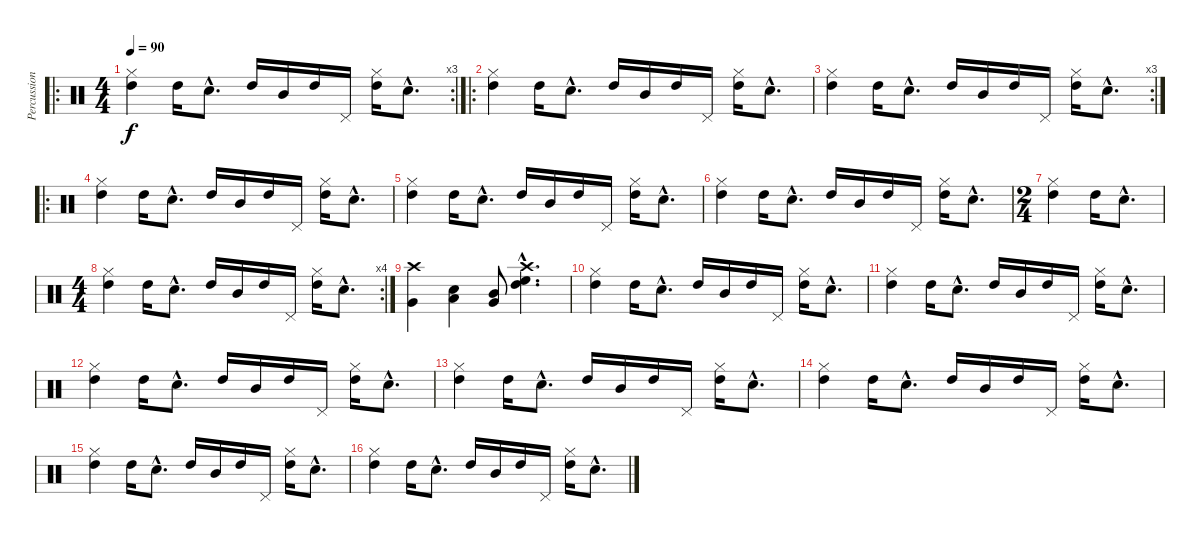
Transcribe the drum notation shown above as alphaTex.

\track ("Percussions(J.Porcaro)" "Percussion") {instrument percussion}
\staff {score}
\articulation defaults
\ro
\rc 3
\ts (4 4)
\tempo 90
\clef neutral
\ks c
("High Tom (hit)" "Hi-Hat (closed)").4{dy f} "High Tom (hit)".16 "Snare (hit) 2"{hac}.8{d} "High Tom (hit)".16 "Mid Tom (hit)".16 "High Tom (hit)".16 "Pedal Hi-Hat (hit)".16 ("High Tom (hit)" "Hi-Hat (closed)").16 "Snare (hit) 2"{hac}.8{d} |
\ro
("High Tom (hit)" "Hi-Hat (closed)").4 "High Tom (hit)".16 "Snare (hit) 2"{hac}.8{d} "High Tom (hit)".16 "Mid Tom (hit)".16 "High Tom (hit)".16 "Pedal Hi-Hat (hit)".16 ("High Tom (hit)" "Hi-Hat (closed)").16 "Snare (hit) 2"{hac}.8{d} |
\rc 3
("High Tom (hit)" "Hi-Hat (closed)").4 "High Tom (hit)".16 "Snare (hit) 2"{hac}.8{d} "High Tom (hit)".16 "Mid Tom (hit)".16 "High Tom (hit)".16 "Pedal Hi-Hat (hit)".16 ("High Tom (hit)" "Hi-Hat (closed)").16 "Snare (hit) 2"{hac}.8{d} |
\ro
("High Tom (hit)" "Hi-Hat (closed)").4 "High Tom (hit)".16 "Snare (hit) 2"{hac}.8{d} "High Tom (hit)".16 "Mid Tom (hit)".16 "High Tom (hit)".16 "Pedal Hi-Hat (hit)".16 ("High Tom (hit)" "Hi-Hat (closed)").16 "Snare (hit) 2"{hac}.8{d} |
("High Tom (hit)" "Hi-Hat (closed)").4 "High Tom (hit)".16 "Snare (hit) 2"{hac}.8{d} "High Tom (hit)".16 "Mid Tom (hit)".16 "High Tom (hit)".16 "Pedal Hi-Hat (hit)".16 ("High Tom (hit)" "Hi-Hat (closed)").16 "Snare (hit) 2"{hac}.8{d} |
("High Tom (hit)" "Hi-Hat (closed)").4 "High Tom (hit)".16 "Snare (hit) 2"{hac}.8{d} "High Tom (hit)".16 "Mid Tom (hit)".16 "High Tom (hit)".16 "Pedal Hi-Hat (hit)".16 ("High Tom (hit)" "Hi-Hat (closed)").16 "Snare (hit) 2"{hac}.8{d} |
\ts (2 4)
("High Tom (hit)" "Hi-Hat (closed)").4 "High Tom (hit)".16 "Snare (hit) 2"{hac}.8{d} |
\rc 4
\ts (4 4)
("High Tom (hit)" "Hi-Hat (closed)").4 "High Tom (hit)".16 "Snare (hit) 2"{hac}.8{d} "High Tom (hit)".16 "Mid Tom (hit)".16 "High Tom (hit)".16 "Pedal Hi-Hat (hit)".16 ("High Tom (hit)" "Hi-Hat (closed)").16 "Snare (hit) 2"{hac}.8{d} |
("Very Low Tom (hit)" "Crash high (hit)").4 ("Low Tom (hit)" "Snare (hit) 2").4 ("Mid Tom (hit)" "Very Low Tom (hit)").8 ("High Tom (hit)"{hac} "High Floor Tom (hit)"{hac} "Crash high (hit)"{hac}).4{d} |
("High Tom (hit)" "Hi-Hat (closed)").4 "High Tom (hit)".16 "Snare (hit) 2"{hac}.8{d} "High Tom (hit)".16 "Mid Tom (hit)".16 "High Tom (hit)".16 "Pedal Hi-Hat (hit)".16 ("High Tom (hit)" "Hi-Hat (closed)").16 "Snare (hit) 2"{hac}.8{d} |
("High Tom (hit)" "Hi-Hat (closed)").4 "High Tom (hit)".16 "Snare (hit) 2"{hac}.8{d} "High Tom (hit)".16 "Mid Tom (hit)".16 "High Tom (hit)".16 "Pedal Hi-Hat (hit)".16 ("High Tom (hit)" "Hi-Hat (closed)").16 "Snare (hit) 2"{hac}.8{d} |
("High Tom (hit)" "Hi-Hat (closed)").4 "High Tom (hit)".16 "Snare (hit) 2"{hac}.8{d} "High Tom (hit)".16 "Mid Tom (hit)".16 "High Tom (hit)".16 "Pedal Hi-Hat (hit)".16 ("High Tom (hit)" "Hi-Hat (closed)").16 "Snare (hit) 2"{hac}.8{d} |
("High Tom (hit)" "Hi-Hat (closed)").4 "High Tom (hit)".16 "Snare (hit) 2"{hac}.8{d} "High Tom (hit)".16 "Mid Tom (hit)".16 "High Tom (hit)".16 "Pedal Hi-Hat (hit)".16 ("High Tom (hit)" "Hi-Hat (closed)").16 "Snare (hit) 2"{hac}.8{d} |
("High Tom (hit)" "Hi-Hat (closed)").4 "High Tom (hit)".16 "Snare (hit) 2"{hac}.8{d} "High Tom (hit)".16 "Mid Tom (hit)".16 "High Tom (hit)".16 "Pedal Hi-Hat (hit)".16 ("High Tom (hit)" "Hi-Hat (closed)").16 "Snare (hit) 2"{hac}.8{d} |
("High Tom (hit)" "Hi-Hat (closed)").4 "High Tom (hit)".16 "Snare (hit) 2"{hac}.8{d} "High Tom (hit)".16 "Mid Tom (hit)".16 "High Tom (hit)".16 "Pedal Hi-Hat (hit)".16 ("High Tom (hit)" "Hi-Hat (closed)").16 "Snare (hit) 2"{hac}.8{d} |
("High Tom (hit)" "Hi-Hat (closed)").4 "High Tom (hit)".16 "Snare (hit) 2"{hac}.8{d} "High Tom (hit)".16 "Mid Tom (hit)".16 "High Tom (hit)".16 "Pedal Hi-Hat (hit)".16 ("High Tom (hit)" "Hi-Hat (closed)").16 "Snare (hit) 2"{hac}.8{d}
